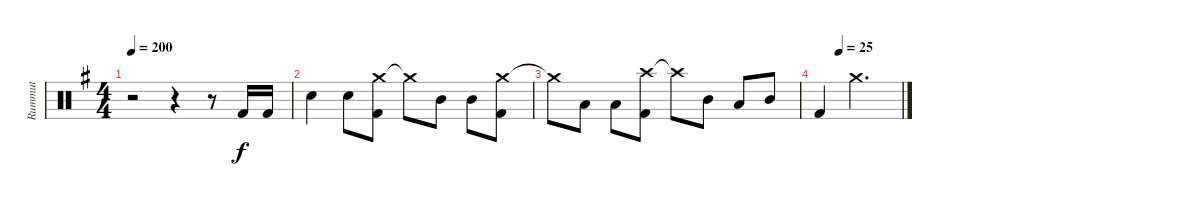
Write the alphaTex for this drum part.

\track ("Rummut" "Rummut") {instrument percussion}
\staff {score}
\articulation defaults
\ts (4 4)
\tempo 200
\clef neutral
\ks g
r.2{dy f} r.4 r.8 "Kick (hit) 2".16 "Kick (hit) 2".16 |
"Snare (hit) 2".4 "Snare (hit) 2".8 ("Crash medium (hit)" "Kick (hit) 2").8 "Crash medium (hit)"{t}.8 "Mid Tom (hit)".8 "Mid Tom (hit)".8 ("Crash medium (hit)" "Kick (hit) 2").8 |
"Crash medium (hit)"{t}.8 "Low Tom (hit)".8 "Low Tom (hit)".8 ("Crash high (hit)" "Kick (hit) 2").8 "Crash high (hit)"{t}.8 "Mid Tom (hit)".8 "Low Tom (hit)".8 "Mid Tom (hit)".8 |
\tempo (25 0.25)
"Kick (hit) 2".4 "Crash medium (hit)".2{d}
